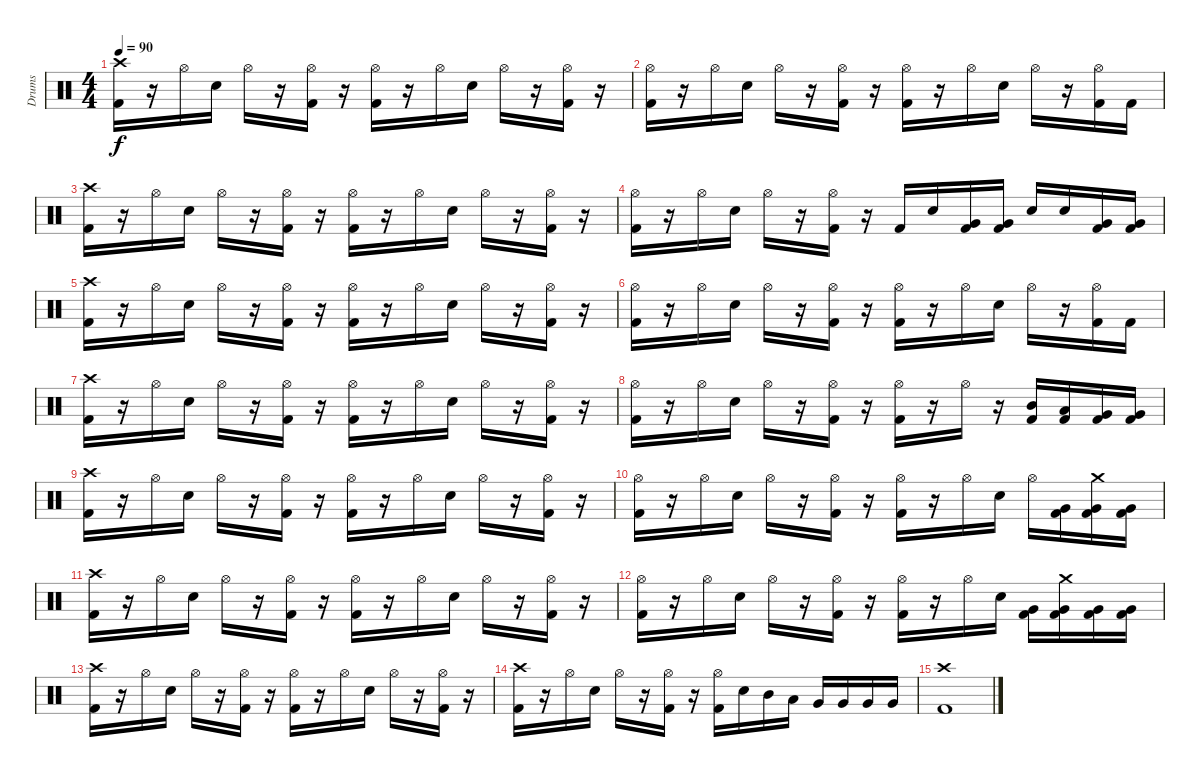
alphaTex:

\track ("Drums" "Drums") {instrument percussion}
\staff {score}
\articulation defaults
\ts (4 4)
\tempo 90
\clef neutral
\ks c
("Kick (hit) 2" "Crash high (hit)").16{dy f} r.16 "Hi-Hat (open)".16 "Snare (hit) 2".16 "Hi-Hat (open)".16 r.16 ("Kick (hit) 2" "Hi-Hat (open)").16 r.16 ("Kick (hit) 2" "Hi-Hat (open)").16 r.16 "Hi-Hat (open)".16 "Snare (hit) 2".16 "Hi-Hat (open)".16 r.16 ("Kick (hit) 2" "Hi-Hat (open)").16 r.16 |
("Kick (hit) 2" "Hi-Hat (open)").16 r.16 "Hi-Hat (open)".16 "Snare (hit) 2".16 "Hi-Hat (open)".16 r.16 ("Kick (hit) 2" "Hi-Hat (open)").16 r.16 ("Kick (hit) 2" "Hi-Hat (open)").16 r.16 "Hi-Hat (open)".16 "Snare (hit) 2".16 "Hi-Hat (open)".16 r.16 ("Kick (hit) 2" "Hi-Hat (open)").16 "Kick (hit) 2".16 |
("Kick (hit) 2" "Crash high (hit)").16 r.16 "Hi-Hat (open)".16 "Snare (hit) 2".16 "Hi-Hat (open)".16 r.16 ("Kick (hit) 2" "Hi-Hat (open)").16 r.16 ("Kick (hit) 2" "Hi-Hat (open)").16 r.16 "Hi-Hat (open)".16 "Snare (hit) 2".16 "Hi-Hat (open)".16 r.16 ("Kick (hit) 2" "Hi-Hat (open)").16 r.16 |
("Kick (hit) 2" "Hi-Hat (open)").16 r.16 "Hi-Hat (open)".16 "Snare (hit) 2".16 "Hi-Hat (open)".16 r.16 ("Kick (hit) 2" "Hi-Hat (open)").16 r.16 "Kick (hit) 2".16 "Snare (hit) 2".16 ("Kick (hit) 2" "Very Low Tom (hit)").16 ("Kick (hit) 2" "Very Low Tom (hit)").16 "Snare (hit) 2".16 "Snare (hit) 2".16 ("Kick (hit) 2" "Very Low Tom (hit)").16 ("Kick (hit) 2" "Very Low Tom (hit)").16 |
("Kick (hit) 2" "Crash high (hit)").16 r.16 "Hi-Hat (open)".16 "Snare (hit) 2".16 "Hi-Hat (open)".16 r.16 ("Kick (hit) 2" "Hi-Hat (open)").16 r.16 ("Kick (hit) 2" "Hi-Hat (open)").16 r.16 "Hi-Hat (open)".16 "Snare (hit) 2".16 "Hi-Hat (open)".16 r.16 ("Kick (hit) 2" "Hi-Hat (open)").16 r.16 |
("Kick (hit) 2" "Hi-Hat (open)").16 r.16 "Hi-Hat (open)".16 "Snare (hit) 2".16 "Hi-Hat (open)".16 r.16 ("Kick (hit) 2" "Hi-Hat (open)").16 r.16 ("Kick (hit) 2" "Hi-Hat (open)").16 r.16 "Hi-Hat (open)".16 "Snare (hit) 2".16 "Hi-Hat (open)".16 r.16 ("Kick (hit) 2" "Hi-Hat (open)").16 "Kick (hit) 2".16 |
("Kick (hit) 2" "Crash high (hit)").16 r.16 "Hi-Hat (open)".16 "Snare (hit) 2".16 "Hi-Hat (open)".16 r.16 ("Kick (hit) 2" "Hi-Hat (open)").16 r.16 ("Kick (hit) 2" "Hi-Hat (open)").16 r.16 "Hi-Hat (open)".16 "Snare (hit) 2".16 "Hi-Hat (open)".16 r.16 ("Kick (hit) 2" "Hi-Hat (open)").16 r.16 |
("Kick (hit) 2" "Hi-Hat (open)").16 r.16 "Hi-Hat (open)".16 "Snare (hit) 2".16 "Hi-Hat (open)".16 r.16 ("Kick (hit) 2" "Hi-Hat (open)").16 r.16 ("Kick (hit) 2" "Hi-Hat (open)").16 r.16 "Hi-Hat (open)".16 r.16 ("Kick (hit) 2" "Mid Tom (hit)").16 ("Kick (hit) 2" "Low Tom (hit)").16 ("Kick (hit) 2" "Very Low Tom (hit)").16 ("Kick (hit) 2" "Very Low Tom (hit)").16 |
("Kick (hit) 2" "Crash high (hit)").16 r.16 "Hi-Hat (open)".16 "Snare (hit) 2".16 "Hi-Hat (open)".16 r.16 ("Kick (hit) 2" "Hi-Hat (open)").16 r.16 ("Kick (hit) 2" "Hi-Hat (open)").16 r.16 "Hi-Hat (open)".16 "Snare (hit) 2".16 "Hi-Hat (open)".16 r.16 ("Kick (hit) 2" "Hi-Hat (open)").16 r.16 |
("Kick (hit) 2" "Hi-Hat (open)").16 r.16 "Hi-Hat (open)".16 "Snare (hit) 2".16 "Hi-Hat (open)".16 r.16 ("Kick (hit) 2" "Hi-Hat (open)").16 r.16 ("Kick (hit) 2" "Hi-Hat (open)").16 r.16 "Hi-Hat (open)".16 "Snare (hit) 2".16 "Hi-Hat (open)".16 ("Kick (hit) 2" "Very Low Tom (hit)").16 ("Kick (hit) 2" "Very Low Tom (hit)" "Crash medium (hit)").16 ("Kick (hit) 2" "Very Low Tom (hit)").16 |
("Kick (hit) 2" "Crash high (hit)").16 r.16 "Hi-Hat (open)".16 "Snare (hit) 2".16 "Hi-Hat (open)".16 r.16 ("Kick (hit) 2" "Hi-Hat (open)").16 r.16 ("Kick (hit) 2" "Hi-Hat (open)").16 r.16 "Hi-Hat (open)".16 "Snare (hit) 2".16 "Hi-Hat (open)".16 r.16 ("Kick (hit) 2" "Hi-Hat (open)").16 r.16 |
("Kick (hit) 2" "Hi-Hat (open)").16 r.16 "Hi-Hat (open)".16 "Snare (hit) 2".16 "Hi-Hat (open)".16 r.16 ("Kick (hit) 2" "Hi-Hat (open)").16 r.16 ("Kick (hit) 2" "Hi-Hat (open)").16 r.16 "Hi-Hat (open)".16 "Snare (hit) 2".16 ("Kick (hit) 2" "Very Low Tom (hit)").16 ("Kick (hit) 2" "Very Low Tom (hit)" "Crash medium (hit)").16 ("Kick (hit) 2" "Very Low Tom (hit)").16 ("Kick (hit) 2" "Very Low Tom (hit)").16 |
("Kick (hit) 2" "Crash high (hit)").16 r.16 "Hi-Hat (open)".16 "Snare (hit) 2".16 "Hi-Hat (open)".16 r.16 ("Kick (hit) 2" "Hi-Hat (open)").16 r.16 ("Kick (hit) 2" "Hi-Hat (open)").16 r.16 "Hi-Hat (open)".16 "Snare (hit) 2".16 "Hi-Hat (open)".16 r.16 ("Kick (hit) 2" "Hi-Hat (open)").16 r.16 |
("Kick (hit) 2" "Crash high (hit)").16 r.16 "Hi-Hat (open)".16 "Snare (hit) 2".16 "Hi-Hat (open)".16 r.16 ("Kick (hit) 2" "Hi-Hat (open)").16 r.16 ("Kick (hit) 2" "Hi-Hat (open)").16 "Snare (hit) 2".16 "Mid Tom (hit)".16 "Low Tom (hit)".16 "Very Low Tom (hit)".16 "Very Low Tom (hit)".16 "Very Low Tom (hit)".16 "Very Low Tom (hit)".16 |
("Kick (hit) 2" "Crash high (hit)").1
